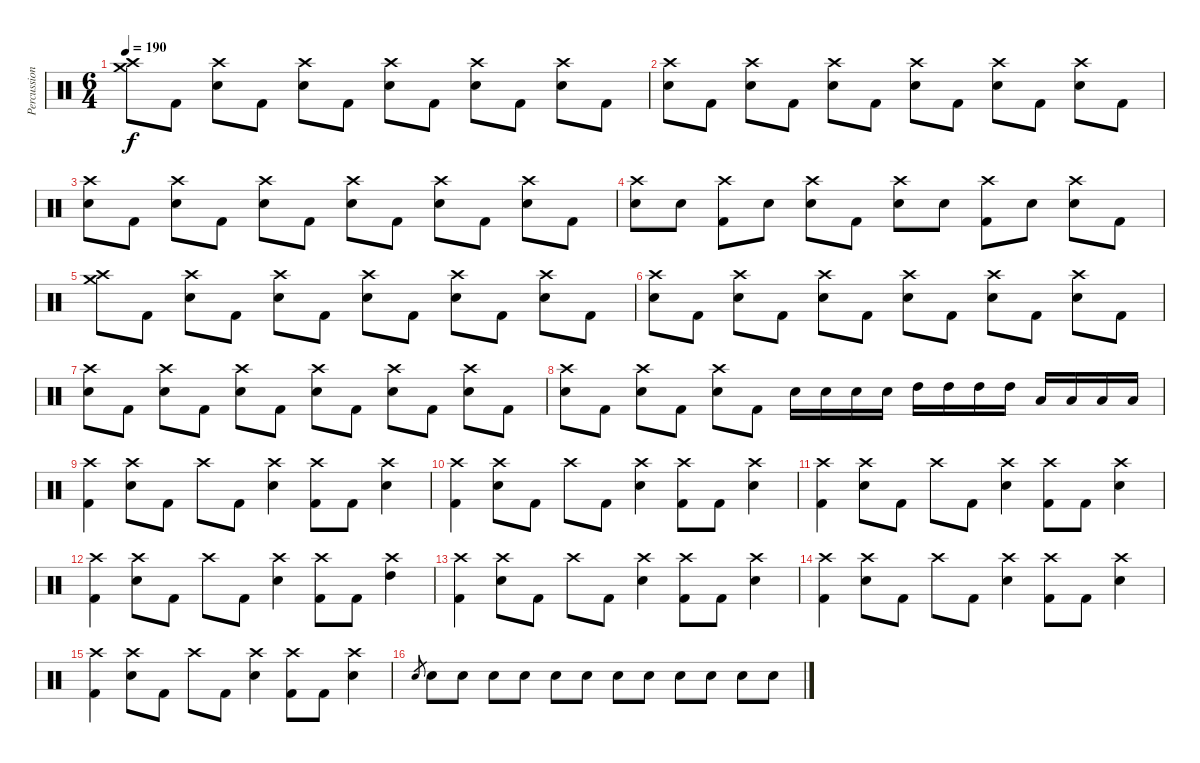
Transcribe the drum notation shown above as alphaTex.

\track ("Percussion" "Percussion") {instrument percussion}
\staff {score}
\articulation defaults
\ts (6 4)
\tempo 190
\clef neutral
\ks c
("Crash high (hit)" "Crash medium (hit)").8{dy f} "Kick (hit) 2".8 ("Crash high (hit)" "Electric Snare (hit)").8 "Kick (hit) 2".8 ("Crash high (hit)" "Electric Snare (hit)").8 "Kick (hit) 2".8 ("Crash high (hit)" "Electric Snare (hit)").8 "Kick (hit) 2".8 ("Crash high (hit)" "Electric Snare (hit)").8 "Kick (hit) 2".8 ("Crash high (hit)" "Electric Snare (hit)").8 "Kick (hit) 2".8 |
("Crash high (hit)" "Electric Snare (hit)").8 "Kick (hit) 2".8 ("Crash high (hit)" "Electric Snare (hit)").8 "Kick (hit) 2".8 ("Crash high (hit)" "Electric Snare (hit)").8 "Kick (hit) 2".8 ("Crash high (hit)" "Electric Snare (hit)").8 "Kick (hit) 2".8 ("Crash high (hit)" "Electric Snare (hit)").8 "Kick (hit) 2".8 ("Crash high (hit)" "Electric Snare (hit)").8 "Kick (hit) 2".8 |
("Crash high (hit)" "Electric Snare (hit)").8 "Kick (hit) 2".8 ("Crash high (hit)" "Electric Snare (hit)").8 "Kick (hit) 2".8 ("Crash high (hit)" "Electric Snare (hit)").8 "Kick (hit) 2".8 ("Crash high (hit)" "Electric Snare (hit)").8 "Kick (hit) 2".8 ("Crash high (hit)" "Electric Snare (hit)").8 "Kick (hit) 2".8 ("Crash high (hit)" "Electric Snare (hit)").8 "Kick (hit) 2".8 |
("Crash high (hit)" "Electric Snare (hit)").8 "Electric Snare (hit)".8 ("Crash high (hit)" "Kick (hit) 2").8 "Electric Snare (hit)".8 ("Crash high (hit)" "Electric Snare (hit)").8 "Kick (hit) 2".8 ("Crash high (hit)" "Electric Snare (hit)").8 "Electric Snare (hit)".8 ("Crash high (hit)" "Kick (hit) 2").8 "Electric Snare (hit)".8 ("Crash high (hit)" "Electric Snare (hit)").8 "Kick (hit) 2".8 |
("Crash high (hit)" "Crash medium (hit)").8 "Kick (hit) 2".8 ("Crash high (hit)" "Electric Snare (hit)").8 "Kick (hit) 2".8 ("Crash high (hit)" "Electric Snare (hit)").8 "Kick (hit) 2".8 ("Crash high (hit)" "Electric Snare (hit)").8 "Kick (hit) 2".8 ("Crash high (hit)" "Electric Snare (hit)").8 "Kick (hit) 2".8 ("Crash high (hit)" "Electric Snare (hit)").8 "Kick (hit) 2".8 |
("Crash high (hit)" "Electric Snare (hit)").8 "Kick (hit) 2".8 ("Crash high (hit)" "Electric Snare (hit)").8 "Kick (hit) 2".8 ("Crash high (hit)" "Electric Snare (hit)").8 "Kick (hit) 2".8 ("Crash high (hit)" "Electric Snare (hit)").8 "Kick (hit) 2".8 ("Crash high (hit)" "Electric Snare (hit)").8 "Kick (hit) 2".8 ("Crash high (hit)" "Electric Snare (hit)").8 "Kick (hit) 2".8 |
("Crash high (hit)" "Electric Snare (hit)").8 "Kick (hit) 2".8 ("Crash high (hit)" "Electric Snare (hit)").8 "Kick (hit) 2".8 ("Crash high (hit)" "Electric Snare (hit)").8 "Kick (hit) 2".8 ("Crash high (hit)" "Electric Snare (hit)").8 "Kick (hit) 2".8 ("Crash high (hit)" "Electric Snare (hit)").8 "Kick (hit) 2".8 ("Crash high (hit)" "Electric Snare (hit)").8 "Kick (hit) 2".8 |
("Crash high (hit)" "Electric Snare (hit)").8 "Kick (hit) 2".8 ("Crash high (hit)" "Electric Snare (hit)").8 "Kick (hit) 2".8 ("Crash high (hit)" "Electric Snare (hit)").8 "Kick (hit) 2".8 "Electric Snare (hit)".16 "Electric Snare (hit)".16 "Electric Snare (hit)".16 "Electric Snare (hit)".16 "High Tom (hit)".16 "High Tom (hit)".16 "High Tom (hit)".16 "High Tom (hit)".16 "Low Tom (hit)".16 "Low Tom (hit)".16 "Low Tom (hit)".16 "Low Tom (hit)".16 |
("Crash high (hit)" "Kick (hit) 2").4 ("Crash high (hit)" "Electric Snare (hit)").8 "Kick (hit) 2".8 "Crash high (hit)".8 "Kick (hit) 2".8 ("Crash high (hit)" "Electric Snare (hit)").4 ("Crash high (hit)" "Kick (hit) 2").8 "Kick (hit) 2".8 ("Crash high (hit)" "Electric Snare (hit)").4 |
("Crash high (hit)" "Kick (hit) 2").4 ("Crash high (hit)" "Electric Snare (hit)").8 "Kick (hit) 2".8 "Crash high (hit)".8 "Kick (hit) 2".8 ("Crash high (hit)" "Electric Snare (hit)").4 ("Crash high (hit)" "Kick (hit) 2").8 "Kick (hit) 2".8 ("Crash high (hit)" "Electric Snare (hit)").4 |
("Crash high (hit)" "Kick (hit) 2").4 ("Crash high (hit)" "Electric Snare (hit)").8 "Kick (hit) 2".8 "Crash high (hit)".8 "Kick (hit) 2".8 ("Crash high (hit)" "Electric Snare (hit)").4 ("Crash high (hit)" "Kick (hit) 2").8 "Kick (hit) 2".8 ("Crash high (hit)" "Electric Snare (hit)").4 |
("Crash high (hit)" "Kick (hit) 2").4 ("Crash high (hit)" "Electric Snare (hit)").8 "Kick (hit) 2".8 "Crash high (hit)".8 "Kick (hit) 2".8 ("Crash high (hit)" "Electric Snare (hit)").4 ("Crash high (hit)" "Kick (hit) 2").8 "Kick (hit) 2".8 ("Crash high (hit)" "High Tom (hit)").4 |
("Crash high (hit)" "Kick (hit) 2").4 ("Crash high (hit)" "Electric Snare (hit)").8 "Kick (hit) 2".8 "Crash high (hit)".8 "Kick (hit) 2".8 ("Crash high (hit)" "Electric Snare (hit)").4 ("Crash high (hit)" "Kick (hit) 2").8 "Kick (hit) 2".8 ("Crash high (hit)" "Electric Snare (hit)").4 |
("Crash high (hit)" "Kick (hit) 2").4 ("Crash high (hit)" "Electric Snare (hit)").8 "Kick (hit) 2".8 "Crash high (hit)".8 "Kick (hit) 2".8 ("Crash high (hit)" "Electric Snare (hit)").4 ("Crash high (hit)" "Kick (hit) 2").8 "Kick (hit) 2".8 ("Crash high (hit)" "Electric Snare (hit)").4 |
("Crash high (hit)" "Kick (hit) 2").4 ("Crash high (hit)" "Electric Snare (hit)").8 "Kick (hit) 2".8 "Crash high (hit)".8 "Kick (hit) 2".8 ("Crash high (hit)" "Electric Snare (hit)").4 ("Crash high (hit)" "Kick (hit) 2").8 "Kick (hit) 2".8 ("Crash high (hit)" "Electric Snare (hit)").4 |
"Electric Snare (hit)".8{gr} "Electric Snare (hit)".8 "Electric Snare (hit)".8 "Electric Snare (hit)".8 "Electric Snare (hit)".8 "Electric Snare (hit)".8 "Electric Snare (hit)".8 "Electric Snare (hit)".8 "Electric Snare (hit)".8 "Electric Snare (hit)".8 "Electric Snare (hit)".8 "Electric Snare (hit)".8 "Electric Snare (hit)".8
